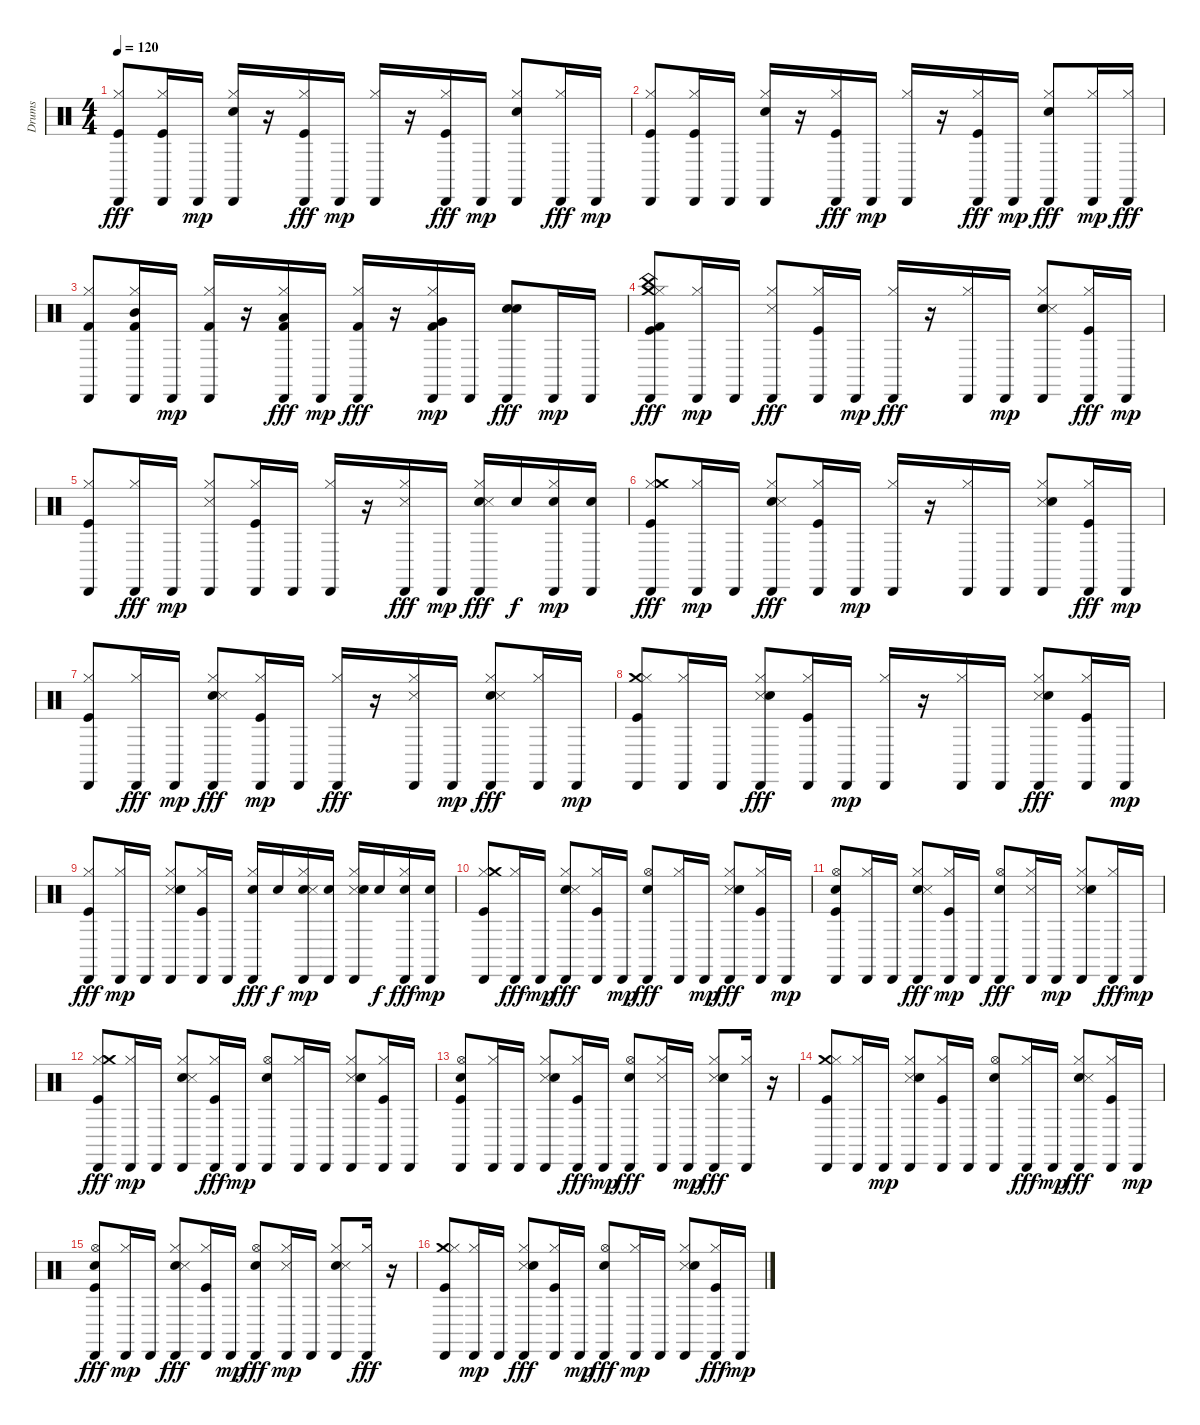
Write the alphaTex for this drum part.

\track ("Drums" "Drums") {instrument percussion}
\staff {score}
\articulation defaults
\ts (4 4)
\tempo 120
\clef neutral
\ks c
("Cabasa (hit)" "Hi-Hat (closed)" "Kick (hit)").8{dy fff} ("Cabasa (hit)" "Hi-Hat (closed)" "Kick (hit)").16 "Cabasa (hit)".16{dy mp} ("Hi-Hat (closed)" "Cabasa (hit)" "Snare (hit) 2").16 r.16 ("Kick (hit)" "Cabasa (hit)" "Hi-Hat (closed)").16{dy fff} "Cabasa (hit)".16{dy mp} ("Hi-Hat (closed)" "Cabasa (hit)").16 r.16 ("Cabasa (hit)" "Kick (hit)" "Hi-Hat (closed)").16{dy fff} "Cabasa (hit)".16{dy mp} ("Hi-Hat (closed)" "Cabasa (hit)" "Snare (hit) 2").8 ("Cabasa (hit)" "Hi-Hat (closed)").16{dy fff} "Cabasa (hit)".16{dy mp} |
("Hi-Hat (closed)" "Kick (hit)" "Cabasa (hit)").8 ("Hi-Hat (closed)" "Kick (hit)" "Cabasa (hit)").16 "Cabasa (hit)".16 ("Snare (hit) 2" "Hi-Hat (closed)" "Cabasa (hit)").16 r.16 ("Cabasa (hit)" "Hi-Hat (closed)" "Kick (hit)").16{dy fff} "Cabasa (hit)".16{dy mp} ("Hi-Hat (closed)" "Cabasa (hit)").16 r.16 ("Hi-Hat (closed)" "Cabasa (hit)" "Kick (hit)").16{dy fff} "Cabasa (hit)".16{dy mp} ("Snare (hit) 2" "Cabasa (hit)" "Hi-Hat (closed)").8{dy fff} ("Hi-Hat (closed)" "Cabasa (hit)").16{dy mp} ("Cabasa (hit)" "Hi-Hat (closed)").16{dy fff} |
("Cabasa (hit)" "Kick (hit) 2" "Hi-Hat (closed)").8 ("Mid Tom (hit)" "Hi-Hat (closed)" "Cabasa (hit)" "Kick (hit) 2").16 "Cabasa (hit)".16{dy mp} ("Kick (hit) 2" "Hi-Hat (closed)" "Cabasa (hit)").16 r.16 ("Low Tom (hit)" "Cabasa (hit)" "Kick (hit) 2" "Hi-Hat (closed)").16{dy fff} "Cabasa (hit)".16{dy mp} ("Hi-Hat (closed)" "Cabasa (hit)" "Kick (hit) 2").16{dy fff} r.16 ("Kick (hit) 2" "Hi-Hat (closed)" "Very Low Tom (hit)" "Cabasa (hit)").16{dy mp} "Cabasa (hit)".16 ("Cabasa (hit)" "Electric Snare (hit)" "Snare (hit) 2").8{dy fff} "Cabasa (hit)".16{dy mp} "Cabasa (hit)".16 |
("Cabasa (hit)" "Crash medium (hit)" "Kick (hit)" "Hi-Hat (closed)" "Kick (hit) 2" "China (hit)").8{dy fff} ("Hi-Hat (closed)" "Cabasa (hit)").16{dy mp} "Cabasa (hit)".16 ("Hi-Hat (closed)" "Cabasa (hit)" "Metronome (hit)").8{dy fff} ("Hi-Hat (closed)" "Cabasa (hit)" "Kick (hit)").16 "Cabasa (hit)".16{dy mp} ("Cabasa (hit)" "Hi-Hat (closed)").16{dy fff} r.16 ("Cabasa (hit)" "Hi-Hat (closed)").16 "Cabasa (hit)".16{dy mp} ("Snare (hit) 2" "Metronome (hit)" "Hi-Hat (closed)" "Cabasa (hit)").8 ("Cabasa (hit)" "Hi-Hat (closed)" "Kick (hit)").16{dy fff} "Cabasa (hit)".16{dy mp} |
("Kick (hit)" "Hi-Hat (closed)" "Cabasa (hit)").8 ("Cabasa (hit)" "Hi-Hat (closed)").16{dy fff} "Cabasa (hit)".16{dy mp} ("Hi-Hat (closed)" "Metronome (hit)" "Cabasa (hit)").8 ("Kick (hit)" "Hi-Hat (closed)" "Cabasa (hit)").16 "Cabasa (hit)".16 ("Hi-Hat (closed)" "Cabasa (hit)").16 r.16 ("Hi-Hat (closed)" "Cabasa (hit)" "Metronome (hit)").16{dy fff} "Cabasa (hit)".16{dy mp} ("Hi-Hat (closed)" "Cabasa (hit)" "Snare (hit) 2" "Metronome (hit)").16{dy fff} "Snare (hit) 2".16{dy f} ("Hi-Hat (closed)" "Cabasa (hit)" "Snare (hit) 2").16{dy mp} ("Cabasa (hit)" "Snare (hit) 2").16 |
("Cabasa (hit)" "Hi-Hat (closed)" "Kick (hit)" "Crash medium (hit)").8{dy fff} ("Hi-Hat (closed)" "Cabasa (hit)").16{dy mp} "Cabasa (hit)".16 ("Snare (hit) 2" "Hi-Hat (closed)" "Cabasa (hit)" "Metronome (hit)").8{dy fff} ("Hi-Hat (closed)" "Cabasa (hit)" "Kick (hit)").16 "Cabasa (hit)".16{dy mp} ("Hi-Hat (closed)" "Cabasa (hit)").16 r.16 ("Hi-Hat (closed)" "Cabasa (hit)").16 "Cabasa (hit)".16 ("Metronome (hit)" "Hi-Hat (closed)" "Cabasa (hit)" "Snare (hit) 2").8 ("Hi-Hat (closed)" "Cabasa (hit)" "Kick (hit)").16{dy fff} "Cabasa (hit)".16{dy mp} |
("Kick (hit)" "Hi-Hat (closed)" "Cabasa (hit)").8 ("Cabasa (hit)" "Hi-Hat (closed)").16{dy fff} "Cabasa (hit)".16{dy mp} ("Snare (hit) 2" "Cabasa (hit)" "Hi-Hat (closed)" "Metronome (hit)").8{dy fff} ("Hi-Hat (closed)" "Kick (hit)" "Cabasa (hit)").16{dy mp} "Cabasa (hit)".16 ("Cabasa (hit)" "Hi-Hat (closed)").16{dy fff} r.16 ("Cabasa (hit)" "Hi-Hat (closed)" "Metronome (hit)").16 "Cabasa (hit)".16{dy mp} ("Cabasa (hit)" "Snare (hit) 2" "Hi-Hat (closed)" "Metronome (hit)").8{dy fff} ("Cabasa (hit)" "Hi-Hat (closed)").16 "Cabasa (hit)".16{dy mp} |
("Kick (hit)" "Crash medium (hit)" "Hi-Hat (closed)" "Cabasa (hit)").8 ("Hi-Hat (closed)" "Cabasa (hit)").16 "Cabasa (hit)".16 ("Hi-Hat (closed)" "Cabasa (hit)" "Metronome (hit)" "Snare (hit) 2").8{dy fff} ("Cabasa (hit)" "Kick (hit)" "Hi-Hat (closed)").16 "Cabasa (hit)".16{dy mp} ("Hi-Hat (closed)" "Cabasa (hit)").16 r.16 ("Hi-Hat (closed)" "Cabasa (hit)").16 "Cabasa (hit)".16 ("Cabasa (hit)" "Metronome (hit)" "Snare (hit) 2" "Hi-Hat (closed)").8{dy fff} ("Hi-Hat (closed)" "Cabasa (hit)" "Kick (hit)").16 "Cabasa (hit)".16{dy mp} |
("Cabasa (hit)" "Hi-Hat (closed)" "Kick (hit)").8{dy fff} ("Hi-Hat (closed)" "Cabasa (hit)").16{dy mp} "Cabasa (hit)".16 ("Metronome (hit)" "Hi-Hat (closed)" "Cabasa (hit)" "Snare (hit) 2").8 ("Kick (hit)" "Hi-Hat (closed)" "Cabasa (hit)").16 "Cabasa (hit)".16 ("Snare (hit) 2" "Cabasa (hit)" "Hi-Hat (closed)").16{dy fff} "Snare (hit) 2".16{dy f} ("Snare (hit) 2" "Metronome (hit)" "Hi-Hat (closed)" "Cabasa (hit)").16{dy mp} ("Cabasa (hit)" "Snare (hit) 2").16 ("Hi-Hat (closed)" "Metronome (hit)" "Cabasa (hit)" "Snare (hit) 2").16 "Snare (hit) 2".16{dy f} ("Cabasa (hit)" "Hi-Hat (closed)" "Snare (hit) 2").16{dy fff} ("Snare (hit) 2" "Cabasa (hit)").16{dy mp} |
("Hi-Hat (closed)" "Kick (hit)" "Crash medium (hit)" "Cabasa (hit)").8 ("Cabasa (hit)" "Hi-Hat (closed)").16{dy fff} "Cabasa (hit)".16{dy mp} ("Snare (hit) 2" "Cabasa (hit)" "Metronome (hit)" "Hi-Hat (closed)").8{dy fff} ("Cabasa (hit)" "Hi-Hat (closed)" "Kick (hit)").16 "Cabasa (hit)".16{dy mp} ("Cabasa (hit)" "Snare (hit) 2" "Hi-Hat (open)").8{dy fff} ("Cabasa (hit)" "Hi-Hat (closed)").16 "Cabasa (hit)".16{dy mp} ("Hi-Hat (closed)" "Cabasa (hit)" "Metronome (hit)" "Snare (hit) 2").8{dy fff} ("Kick (hit)" "Cabasa (hit)" "Hi-Hat (closed)").16 "Cabasa (hit)".16{dy mp} |
("Kick (hit)" "Hi-Hat (open)" "Snare (hit) 2" "Cabasa (hit)").8 ("Hi-Hat (closed)" "Cabasa (hit)").16 "Cabasa (hit)".16 ("Snare (hit) 2" "Cabasa (hit)" "Metronome (hit)" "Hi-Hat (closed)").8{dy fff} ("Kick (hit)" "Hi-Hat (closed)" "Cabasa (hit)").16{dy mp} "Cabasa (hit)".16 ("Cabasa (hit)" "Snare (hit) 2" "Hi-Hat (open)").8{dy fff} ("Cabasa (hit)" "Metronome (hit)" "Hi-Hat (closed)").16 "Cabasa (hit)".16{dy mp} ("Hi-Hat (closed)" "Metronome (hit)" "Snare (hit) 2" "Cabasa (hit)").8{volume 16} ("Cabasa (hit)" "Hi-Hat (closed)").16{dy fff} "Cabasa (hit)".16{dy mp volume 16} |
("Cabasa (hit)" "Kick (hit)" "Hi-Hat (closed)" "Crash medium (hit)").8{dy fff volume 15} ("Hi-Hat (closed)" "Cabasa (hit)").16{dy mp volume 15} "Cabasa (hit)".16{volume 15} ("Snare (hit) 2" "Hi-Hat (closed)" "Metronome (hit)" "Cabasa (hit)").8{volume 15} ("Hi-Hat (closed)" "Cabasa (hit)" "Kick (hit)").16{dy fff volume 15} "Cabasa (hit)".16{dy mp volume 15} ("Hi-Hat (open)" "Cabasa (hit)" "Snare (hit) 2").8{volume 14} ("Hi-Hat (closed)" "Cabasa (hit)").16{volume 14} "Cabasa (hit)".16{volume 14} ("Metronome (hit)" "Hi-Hat (closed)" "Snare (hit) 2" "Cabasa (hit)").8{volume 14} ("Kick (hit)" "Hi-Hat (closed)" "Cabasa (hit)").16{volume 14} "Cabasa (hit)".16{volume 14} |
("Snare (hit) 2" "Hi-Hat (open)" "Kick (hit)" "Cabasa (hit)").8{volume 13} ("Hi-Hat (closed)" "Cabasa (hit)").16{volume 13} "Cabasa (hit)".16{volume 13} ("Hi-Hat (closed)" "Metronome (hit)" "Snare (hit) 2" "Cabasa (hit)").8{volume 13} ("Kick (hit)" "Cabasa (hit)" "Hi-Hat (closed)").16{dy fff volume 12} "Cabasa (hit)".16{dy mp} ("Cabasa (hit)" "Hi-Hat (open)" "Snare (hit) 2").8{dy fff volume 12} ("Cabasa (hit)" "Metronome (hit)" "Hi-Hat (closed)").16{volume 11} "Cabasa (hit)".16{dy mp volume 11} ("Cabasa (hit)" "Metronome (hit)" "Snare (hit) 2" "Hi-Hat (closed)").8{dy fff volume 11} ("Cabasa (hit)" "Hi-Hat (closed)").16{volume 11} r.16 |
("Kick (hit)" "Cabasa (hit)" "Crash medium (hit)" "Hi-Hat (closed)").8{volume 10} ("Cabasa (hit)" "Hi-Hat (closed)").16{volume 10} "Cabasa (hit)".16{dy mp volume 10} ("Metronome (hit)" "Snare (hit) 2" "Hi-Hat (closed)" "Cabasa (hit)").8{volume 10} ("Hi-Hat (closed)" "Kick (hit)" "Cabasa (hit)").16{volume 9} "Cabasa (hit)".16{volume 9} ("Hi-Hat (open)" "Snare (hit) 2" "Cabasa (hit)").8{volume 9} ("Cabasa (hit)" "Hi-Hat (closed)").16{dy fff volume 8} "Cabasa (hit)".16{dy mp volume 8} ("Cabasa (hit)" "Snare (hit) 2" "Metronome (hit)" "Hi-Hat (closed)").8{dy fff volume 8} ("Cabasa (hit)" "Hi-Hat (closed)" "Kick (hit)").16{volume 7} "Cabasa (hit)".16{dy mp volume 7} |
("Cabasa (hit)" "Snare (hit) 2" "Kick (hit)" "Hi-Hat (open)").8{dy fff volume 7} ("Hi-Hat (closed)" "Cabasa (hit)").16{dy mp volume 6} "Cabasa (hit)".16 ("Snare (hit) 2" "Metronome (hit)" "Cabasa (hit)" "Hi-Hat (closed)").8{dy fff volume 6} ("Hi-Hat (closed)" "Cabasa (hit)" "Kick (hit)").16{volume 6} "Cabasa (hit)".16{dy mp volume 5} ("Cabasa (hit)" "Snare (hit) 2" "Hi-Hat (open)").8{dy fff} ("Hi-Hat (closed)" "Metronome (hit)" "Cabasa (hit)").16{dy mp volume 5} "Cabasa (hit)".16{volume 5} ("Snare (hit) 2" "Metronome (hit)" "Hi-Hat (closed)" "Cabasa (hit)").8 ("Cabasa (hit)" "Hi-Hat (closed)").16{dy fff volume 4} r.16 |
("Crash medium (hit)" "Kick (hit)" "Cabasa (hit)" "Hi-Hat (closed)").8{volume 4} ("Hi-Hat (closed)" "Cabasa (hit)").16{dy mp volume 4} "Cabasa (hit)".16 ("Cabasa (hit)" "Metronome (hit)" "Hi-Hat (closed)" "Snare (hit) 2").8{dy fff} ("Kick (hit)" "Cabasa (hit)" "Hi-Hat (closed)").16{volume 4} "Cabasa (hit)".16{dy mp} ("Cabasa (hit)" "Hi-Hat (open)" "Snare (hit) 2").8{dy fff} ("Hi-Hat (closed)" "Cabasa (hit)").16{dy mp volume 3} "Cabasa (hit)".16 ("Metronome (hit)" "Hi-Hat (closed)" "Snare (hit) 2" "Cabasa (hit)").8 ("Cabasa (hit)" "Hi-Hat (closed)" "Kick (hit)").16{dy fff volume 3} "Cabasa (hit)".16{dy mp}
